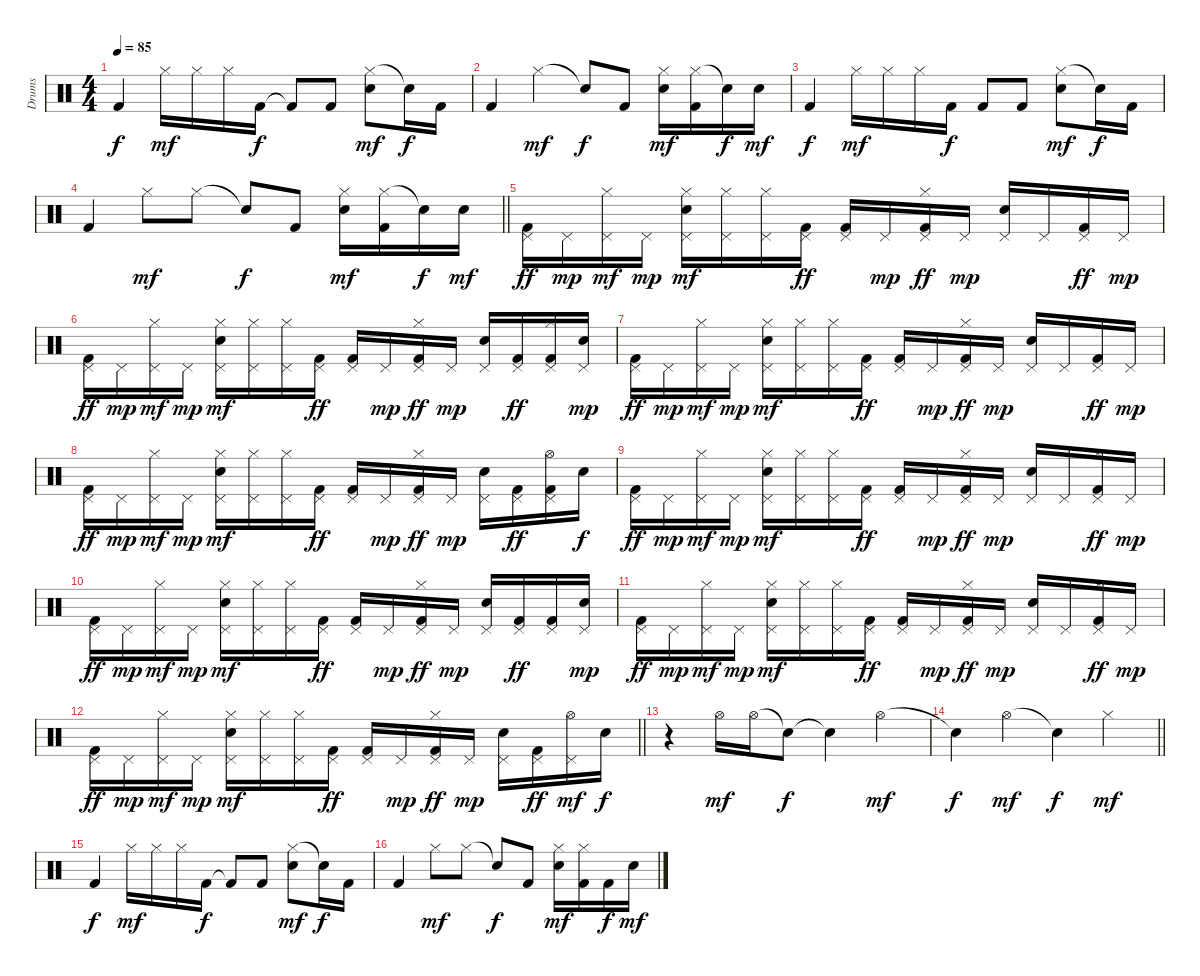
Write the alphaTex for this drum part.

\track ("Drums" "Drums") {instrument percussion}
\staff {score}
\articulation defaults
\ts (4 4)
\section ("" "")
\tempo 85
\clef neutral
\ks c "Kick (hit) 2".4{dy f} "Hi-Hat (closed)".16{dy mf} "Hi-Hat (closed)".16 "Hi-Hat (closed)".16 "Kick (hit) 2".16{dy f} "Kick (hit) 2"{t}.8 "Kick (hit) 2".8
("Hi-Hat (closed)" "Snare (hit) 2").8{dy mf} "Snare (hit)"{t}.16{dy f} "Kick (hit) 2".16 |
"Kick (hit) 2".4 "Hi-Hat (closed)".4{dy mf} "Snare (hit)"{t}.8{dy f} "Kick (hit) 2".8 ("Hi-Hat (closed)" "Snare (hit) 2").16{dy mf} ("Hi-Hat (closed)" "Kick (hit) 2").16 "Snare (hit)"{t}.16{dy f} "Snare (hit) 2".16{dy mf} |
"Kick (hit) 2".4{dy f} "Hi-Hat (closed)".16{dy mf} "Hi-Hat (closed)".16 "Hi-Hat (closed)".16 "Kick (hit) 2".16{dy f} "Kick (hit) 2".8 "Kick (hit) 2".8 ("Hi-Hat (closed)" "Snare (hit) 2").8{dy mf} "Snare (hit)"{t}.16{dy f} "Kick (hit) 2".16 |
\barLineRight lightlight "Kick (hit) 2".4 "Hi-Hat (closed)".8{dy mf} "Hi-Hat (closed)".8 "Snare (hit)"{t}.8{dy f} "Kick (hit) 2".8
("Hi-Hat (closed)" "Snare (hit) 2").16{dy mf} ("Hi-Hat (closed)" "Kick (hit) 2").16 "Snare (hit)"{t}.16{dy f} "Snare (hit) 2".16{dy mf} |
\section ("" "")
("Pedal Hi-Hat (hit)" "Kick (hit) 2").16{dy ff} "Pedal Hi-Hat (hit)".16{dy mp} ("Pedal Hi-Hat (hit)" "Hi-Hat (closed)").16{dy mf} "Pedal Hi-Hat (hit)".16{dy mp} ("Pedal Hi-Hat (hit)" "Hi-Hat (closed)" "Snare (hit) 2").16{dy mf} ("Pedal Hi-Hat (hit)" "Hi-Hat (closed)").16 ("Pedal Hi-Hat (hit)" "Hi-Hat (closed)").16 ("Pedal Hi-Hat (hit)" "Kick (hit) 2").16{dy ff} ("Pedal Hi-Hat (hit)" "Kick (hit) 2").16 "Pedal Hi-Hat (hit)".16{dy mp} ("Pedal Hi-Hat (hit)" "Hi-Hat (closed)" "Kick (hit) 2").16{dy ff} "Pedal Hi-Hat (hit)".16{dy mp} ("Pedal Hi-Hat (hit)" "Snare (hit) 2").16 "Pedal Hi-Hat (hit)".16 ("Pedal Hi-Hat (hit)" "Kick (hit) 2").16{dy ff} "Pedal Hi-Hat (hit)".16{dy mp} |
("Pedal Hi-Hat (hit)" "Kick (hit) 2").16{dy ff} "Pedal Hi-Hat (hit)".16{dy mp} ("Pedal Hi-Hat (hit)" "Hi-Hat (closed)").16{dy mf} "Pedal Hi-Hat (hit)".16{dy mp} ("Pedal Hi-Hat (hit)" "Hi-Hat (closed)" "Snare (hit) 2").16{dy mf} ("Pedal Hi-Hat (hit)" "Hi-Hat (closed)").16 ("Pedal Hi-Hat (hit)" "Hi-Hat (closed)").16 ("Pedal Hi-Hat (hit)" "Kick (hit) 2").16{dy ff} ("Pedal Hi-Hat (hit)" "Kick (hit) 2").16 "Pedal Hi-Hat (hit)".16{dy mp} ("Pedal Hi-Hat (hit)" "Hi-Hat (closed)" "Kick (hit) 2").16{dy ff} "Pedal Hi-Hat (hit)".16{dy mp} ("Pedal Hi-Hat (hit)" "Snare (hit) 2").16 ("Pedal Hi-Hat (hit)" "Kick (hit) 2").16{dy ff} ("Pedal Hi-Hat (hit)" "Hi-Hat (closed)" "Kick (hit) 2").16 ("Pedal Hi-Hat (hit)" "Snare (hit) 2").16{dy mp} |
("Pedal Hi-Hat (hit)" "Kick (hit) 2").16{dy ff} "Pedal Hi-Hat (hit)".16{dy mp} ("Pedal Hi-Hat (hit)" "Hi-Hat (closed)").16{dy mf} "Pedal Hi-Hat (hit)".16{dy mp} ("Pedal Hi-Hat (hit)" "Hi-Hat (closed)" "Snare (hit) 2").16{dy mf} ("Pedal Hi-Hat (hit)" "Hi-Hat (closed)").16 ("Pedal Hi-Hat (hit)" "Hi-Hat (closed)").16 ("Pedal Hi-Hat (hit)" "Kick (hit) 2").16{dy ff} ("Pedal Hi-Hat (hit)" "Kick (hit) 2").16 "Pedal Hi-Hat (hit)".16{dy mp} ("Pedal Hi-Hat (hit)" "Hi-Hat (closed)" "Kick (hit) 2").16{dy ff} "Pedal Hi-Hat (hit)".16{dy mp} ("Pedal Hi-Hat (hit)" "Snare (hit) 2").16 "Pedal Hi-Hat (hit)".16 ("Pedal Hi-Hat (hit)" "Kick (hit) 2").16{dy ff} "Pedal Hi-Hat (hit)".16{dy mp} |
("Pedal Hi-Hat (hit)" "Kick (hit) 2").16{dy ff} "Pedal Hi-Hat (hit)".16{dy mp} ("Pedal Hi-Hat (hit)" "Hi-Hat (closed)").16{dy mf} "Pedal Hi-Hat (hit)".16{dy mp} ("Pedal Hi-Hat (hit)" "Hi-Hat (closed)" "Snare (hit) 2").16{dy mf} ("Pedal Hi-Hat (hit)" "Hi-Hat (closed)").16 ("Pedal Hi-Hat (hit)" "Hi-Hat (closed)").16 ("Pedal Hi-Hat (hit)" "Kick (hit) 2").16{dy ff} ("Pedal Hi-Hat (hit)" "Kick (hit) 2").16 "Pedal Hi-Hat (hit)".16{dy mp} ("Pedal Hi-Hat (hit)" "Hi-Hat (closed)" "Kick (hit) 2").16{dy ff} "Pedal Hi-Hat (hit)".16{dy mp} ("Pedal Hi-Hat (hit)" "Snare (hit) 2").16 ("Pedal Hi-Hat (hit)" "Kick (hit) 2").16{dy ff} ("Pedal Hi-Hat (hit)" "Hi-Hat (open)" "Kick (hit) 2").16 "Snare (hit) 2".16{dy f} |
("Pedal Hi-Hat (hit)" "Kick (hit) 2").16{dy ff} "Pedal Hi-Hat (hit)".16{dy mp} ("Pedal Hi-Hat (hit)" "Hi-Hat (closed)").16{dy mf} "Pedal Hi-Hat (hit)".16{dy mp} ("Pedal Hi-Hat (hit)" "Hi-Hat (closed)" "Snare (hit) 2").16{dy mf} ("Pedal Hi-Hat (hit)" "Hi-Hat (closed)").16 ("Pedal Hi-Hat (hit)" "Hi-Hat (closed)").16 ("Pedal Hi-Hat (hit)" "Kick (hit) 2").16{dy ff} ("Pedal Hi-Hat (hit)" "Kick (hit) 2").16 "Pedal Hi-Hat (hit)".16{dy mp} ("Pedal Hi-Hat (hit)" "Hi-Hat (closed)" "Kick (hit) 2").16{dy ff} "Pedal Hi-Hat (hit)".16{dy mp} ("Pedal Hi-Hat (hit)" "Snare (hit) 2").16 "Pedal Hi-Hat (hit)".16 ("Pedal Hi-Hat (hit)" "Hi-Hat (closed)" "Kick (hit) 2").16{dy ff} "Pedal Hi-Hat (hit)".16{dy mp} |
("Pedal Hi-Hat (hit)" "Kick (hit) 2").16{dy ff} "Pedal Hi-Hat (hit)".16{dy mp} ("Pedal Hi-Hat (hit)" "Hi-Hat (closed)").16{dy mf} "Pedal Hi-Hat (hit)".16{dy mp} ("Pedal Hi-Hat (hit)" "Hi-Hat (closed)" "Snare (hit) 2").16{dy mf} ("Pedal Hi-Hat (hit)" "Hi-Hat (closed)").16 ("Pedal Hi-Hat (hit)" "Hi-Hat (closed)").16 ("Pedal Hi-Hat (hit)" "Kick (hit) 2").16{dy ff} ("Pedal Hi-Hat (hit)" "Kick (hit) 2").16 "Pedal Hi-Hat (hit)".16{dy mp} ("Pedal Hi-Hat (hit)" "Hi-Hat (closed)" "Kick (hit) 2").16{dy ff} "Pedal Hi-Hat (hit)".16{dy mp} ("Pedal Hi-Hat (hit)" "Snare (hit) 2").16 ("Pedal Hi-Hat (hit)" "Kick (hit) 2").16{dy ff} ("Pedal Hi-Hat (hit)" "Kick (hit) 2").16 ("Pedal Hi-Hat (hit)" "Snare (hit) 2").16{dy mp} |
("Pedal Hi-Hat (hit)" "Kick (hit) 2").16{dy ff} "Pedal Hi-Hat (hit)".16{dy mp} ("Pedal Hi-Hat (hit)" "Hi-Hat (closed)").16{dy mf} "Pedal Hi-Hat (hit)".16{dy mp} ("Pedal Hi-Hat (hit)" "Hi-Hat (closed)" "Snare (hit) 2").16{dy mf} ("Pedal Hi-Hat (hit)" "Hi-Hat (closed)").16 ("Pedal Hi-Hat (hit)" "Hi-Hat (closed)").16 ("Pedal Hi-Hat (hit)" "Kick (hit) 2").16{dy ff} ("Pedal Hi-Hat (hit)" "Kick (hit) 2").16 "Pedal Hi-Hat (hit)".16{dy mp} ("Pedal Hi-Hat (hit)" "Hi-Hat (closed)" "Kick (hit) 2").16{dy ff} "Pedal Hi-Hat (hit)".16{dy mp} ("Pedal Hi-Hat (hit)" "Snare (hit) 2").16 "Pedal Hi-Hat (hit)".16 ("Pedal Hi-Hat (hit)" "Hi-Hat (closed)" "Kick (hit) 2").16{dy ff} "Pedal Hi-Hat (hit)".16{dy mp} |
\barLineRight lightlight
("Pedal Hi-Hat (hit)" "Kick (hit) 2").16{dy ff} "Pedal Hi-Hat (hit)".16{dy mp} ("Pedal Hi-Hat (hit)" "Hi-Hat (closed)").16{dy mf} "Pedal Hi-Hat (hit)".16{dy mp} ("Pedal Hi-Hat (hit)" "Hi-Hat (closed)" "Snare (hit) 2").16{dy mf} ("Pedal Hi-Hat (hit)" "Hi-Hat (closed)").16 ("Pedal Hi-Hat (hit)" "Hi-Hat (closed)").16 ("Pedal Hi-Hat (hit)" "Kick (hit) 2").16{dy ff} ("Pedal Hi-Hat (hit)" "Kick (hit) 2").16 "Pedal Hi-Hat (hit)".16{dy mp} ("Pedal Hi-Hat (hit)" "Hi-Hat (closed)" "Kick (hit) 2").16{dy ff} "Pedal Hi-Hat (hit)".16{dy mp} ("Pedal Hi-Hat (hit)" "Snare (hit) 2").16 ("Pedal Hi-Hat (hit)" "Kick (hit) 2").16{dy ff} ("Pedal Hi-Hat (hit)" "Hi-Hat (open)").16{dy mf} "Snare (hit) 2".16{dy f} |
\section ("" "")
r.4 "Hi-Hat (open)".16{dy mf} "Hi-Hat (open)".16 "Snare (hit)"{t}.8{dy f} "Snare (hit)"{t}.4 "Hi-Hat (open)".4{dy mf} |
\barLineRight lightlight "Snare (hit)"{t}.4{dy f} "Hi-Hat (open)".4{dy mf} "Snare (hit)"{t}.4{dy f} "Hi-Hat (closed)".4{dy mf}
|
\section ("" "")
"Kick (hit) 2".4{dy f} "Hi-Hat (closed)".16{dy mf} "Hi-Hat (closed)".16 "Hi-Hat (closed)".16 "Kick (hit) 2".16{dy f} "Kick (hit) 2"{t}.8 "Kick (hit) 2".8 ("Hi-Hat (closed)" "Snare (hit) 2").8{dy mf} "Snare (hit)"{t}.16{dy f} "Kick (hit) 2".16 |
"Kick (hit) 2".4 "Hi-Hat (closed)".8{dy mf} "Hi-Hat (closed)".8 "Snare (hit)"{t}.8{dy f} "Kick (hit) 2".8 ("Hi-Hat (closed)" "Snare (hit) 2").16{dy mf} ("Hi-Hat (closed)" "Kick (hit) 2").16 "Kick (hit) 2".16{dy f} "Snare (hit) 2".16{dy mf}
